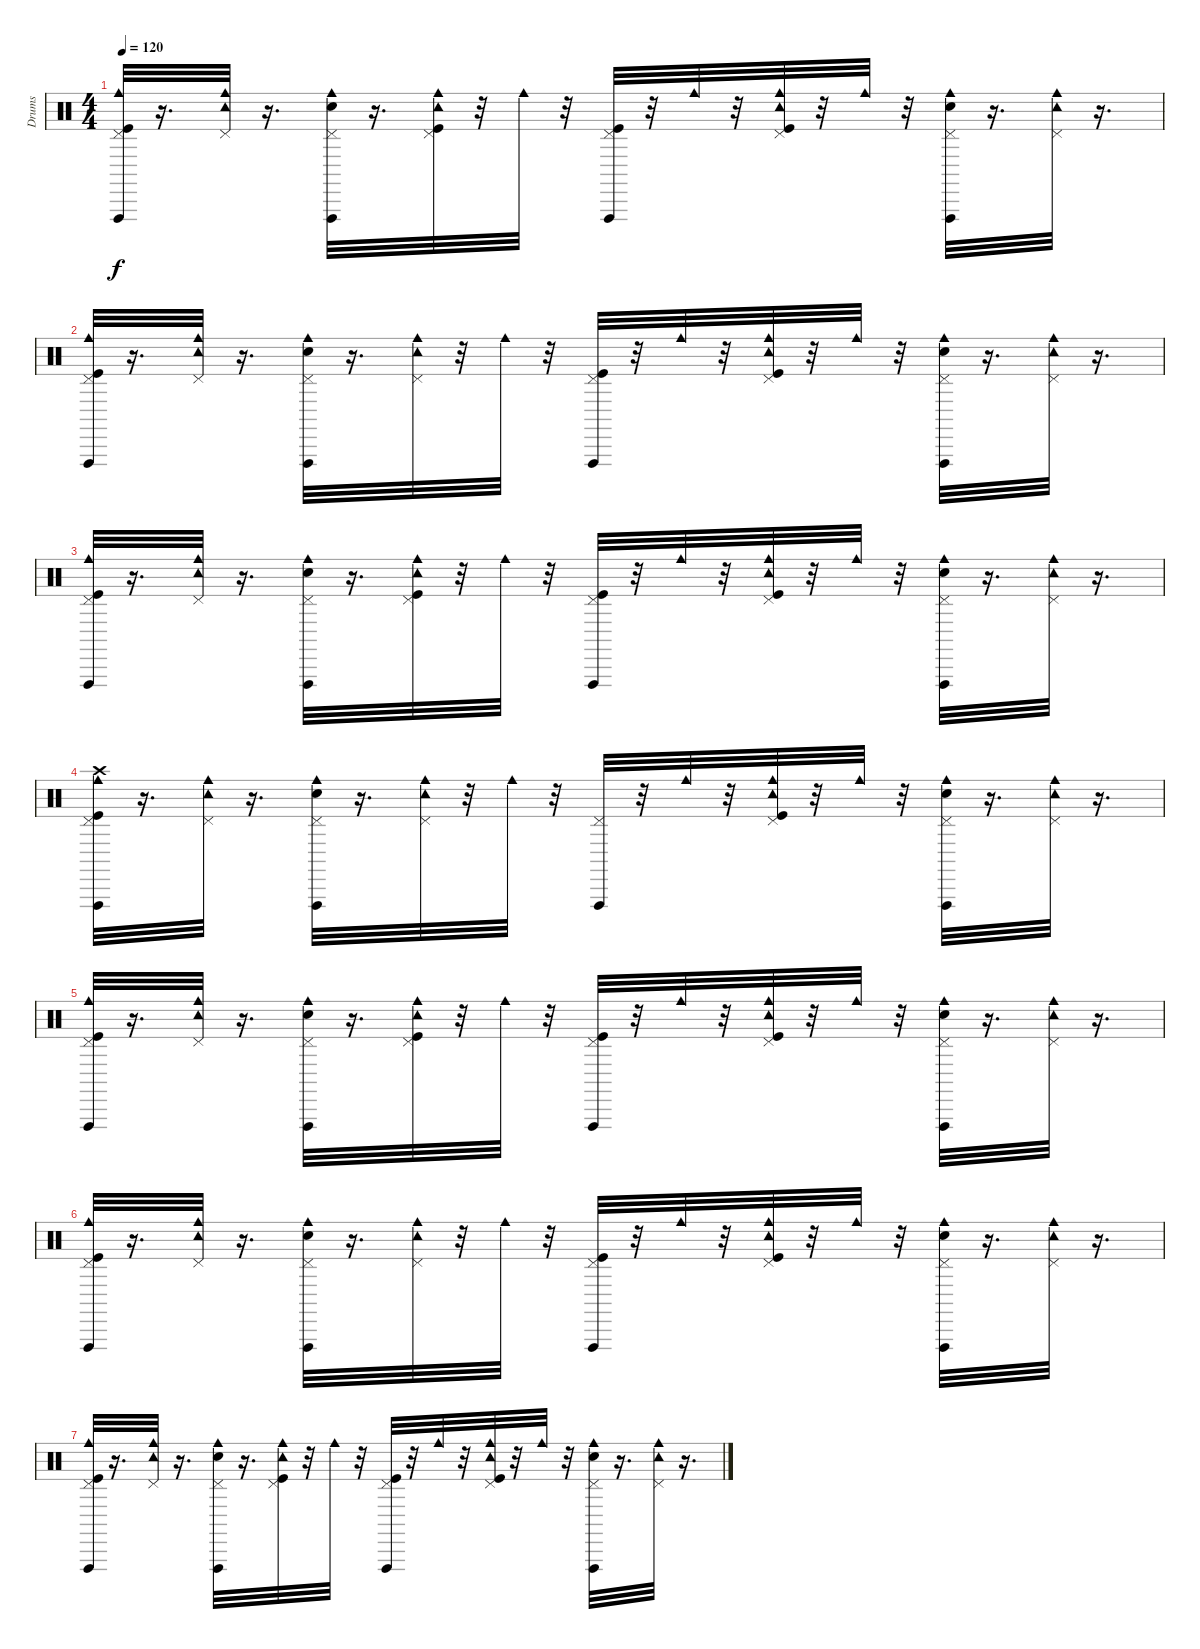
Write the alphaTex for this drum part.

\track ("Drums" "Drums") {instrument percussion}
\staff {score}
\articulation defaults
\ts (4 4)
\tempo 120
\clef neutral
\ks c
("Kick (hit)" "Cowbell medium (hit)" "Pedal Hi-Hat (hit)" "Vibraslap (hit)").32{dy f} r.16{d} ("Tambourine (hit)" "Pedal Hi-Hat (hit)" "Cowbell medium (hit)").32 r.16{d} ("Pedal Hi-Hat (hit)" "Snare (hit) 2" "Cowbell medium (hit)" "Vibraslap (hit)").32 r.16{d} ("Pedal Hi-Hat (hit)" "Tambourine (hit)" "Kick (hit)" "Cowbell medium (hit)").32 r.32 "Cowbell medium (hit)".32 r.32 ("Pedal Hi-Hat (hit)" "Kick (hit)" "Vibraslap (hit)").32 r.32 "Cowbell medium (hit)".32 r.32 ("Tambourine (hit)" "Pedal Hi-Hat (hit)" "Cowbell medium (hit)" "Kick (hit)").32 r.32 "Cowbell medium (hit)".32 r.32 ("Cowbell medium (hit)" "Pedal Hi-Hat (hit)" "Snare (hit) 2" "Vibraslap (hit)").32 r.16{d} ("Pedal Hi-Hat (hit)" "Tambourine (hit)" "Cowbell medium (hit)").32 r.16{d} |
("Cowbell medium (hit)" "Pedal Hi-Hat (hit)" "Kick (hit)" "Vibraslap (hit)").32 r.16{d} ("Pedal Hi-Hat (hit)" "Cowbell medium (hit)" "Tambourine (hit)").32 r.16{d} ("Pedal Hi-Hat (hit)" "Cowbell medium (hit)" "Snare (hit) 2" "Vibraslap (hit)").32 r.16{d} ("Cowbell medium (hit)" "Pedal Hi-Hat (hit)" "Tambourine (hit)").32 r.32 "Cowbell medium (hit)".32 r.32 ("Kick (hit)" "Pedal Hi-Hat (hit)" "Vibraslap (hit)").32 r.32 "Cowbell medium (hit)".32 r.32 ("Tambourine (hit)" "Pedal Hi-Hat (hit)" "Kick (hit)" "Cowbell medium (hit)").32 r.32 "Cowbell medium (hit)".32 r.32 ("Snare (hit) 2" "Pedal Hi-Hat (hit)" "Cowbell medium (hit)" "Vibraslap (hit)").32 r.16{d} ("Pedal Hi-Hat (hit)" "Tambourine (hit)" "Cowbell medium (hit)").32 r.16{d} |
("Vibraslap (hit)" "Cowbell medium (hit)" "Pedal Hi-Hat (hit)" "Kick (hit)").32 r.16{d} ("Tambourine (hit)" "Pedal Hi-Hat (hit)" "Cowbell medium (hit)").32 r.16{d} ("Pedal Hi-Hat (hit)" "Snare (hit) 2" "Cowbell medium (hit)" "Vibraslap (hit)").32 r.16{d} ("Tambourine (hit)" "Pedal Hi-Hat (hit)" "Kick (hit)" "Cowbell medium (hit)").32 r.32 "Cowbell medium (hit)".32 r.32 ("Pedal Hi-Hat (hit)" "Vibraslap (hit)" "Kick (hit)").32 r.32 "Cowbell medium (hit)".32 r.32 ("Tambourine (hit)" "Pedal Hi-Hat (hit)" "Cowbell medium (hit)" "Kick (hit)").32 r.32 "Cowbell medium (hit)".32 r.32 ("Vibraslap (hit)" "Pedal Hi-Hat (hit)" "Cowbell medium (hit)" "Snare (hit) 2").32 r.16{d} ("Tambourine (hit)" "Cowbell medium (hit)" "Pedal Hi-Hat (hit)").32 r.16{d} |
("Vibraslap (hit)" "Cowbell medium (hit)" "Pedal Hi-Hat (hit)" "Crash high (hit)" "Kick (hit)").32 r.16{d} ("Pedal Hi-Hat (hit)" "Tambourine (hit)" "Cowbell medium (hit)").32 r.16{d} ("Snare (hit) 2" "Cowbell medium (hit)" "Vibraslap (hit)" "Pedal Hi-Hat (hit)").32 r.16{d} ("Cowbell medium (hit)" "Pedal Hi-Hat (hit)" "Tambourine (hit)").32 r.32 "Cowbell medium (hit)".32 r.32 ("Vibraslap (hit)" "Pedal Hi-Hat (hit)").32 r.32 "Cowbell medium (hit)".32 r.32 ("Tambourine (hit)" "Cowbell medium (hit)" "Pedal Hi-Hat (hit)" "Kick (hit)").32 r.32 "Cowbell medium (hit)".32 r.32 ("Cowbell medium (hit)" "Vibraslap (hit)" "Snare (hit) 2" "Pedal Hi-Hat (hit)").32 r.16{d} ("Pedal Hi-Hat (hit)" "Cowbell medium (hit)" "Tambourine (hit)").32 r.16{d} |
("Kick (hit)" "Cowbell medium (hit)" "Pedal Hi-Hat (hit)" "Vibraslap (hit)").32 r.16{d} ("Tambourine (hit)" "Pedal Hi-Hat (hit)" "Cowbell medium (hit)").32 r.16{d} ("Pedal Hi-Hat (hit)" "Snare (hit) 2" "Cowbell medium (hit)" "Vibraslap (hit)").32 r.16{d} ("Pedal Hi-Hat (hit)" "Tambourine (hit)" "Kick (hit)" "Cowbell medium (hit)").32 r.32 "Cowbell medium (hit)".32 r.32 ("Pedal Hi-Hat (hit)" "Kick (hit)" "Vibraslap (hit)").32 r.32 "Cowbell medium (hit)".32 r.32 ("Tambourine (hit)" "Pedal Hi-Hat (hit)" "Cowbell medium (hit)" "Kick (hit)").32 r.32 "Cowbell medium (hit)".32 r.32 ("Cowbell medium (hit)" "Pedal Hi-Hat (hit)" "Snare (hit) 2" "Vibraslap (hit)").32 r.16{d} ("Pedal Hi-Hat (hit)" "Tambourine (hit)" "Cowbell medium (hit)").32 r.16{d} |
("Cowbell medium (hit)" "Pedal Hi-Hat (hit)" "Kick (hit)" "Vibraslap (hit)").32 r.16{d} ("Pedal Hi-Hat (hit)" "Cowbell medium (hit)" "Tambourine (hit)").32 r.16{d} ("Pedal Hi-Hat (hit)" "Cowbell medium (hit)" "Snare (hit) 2" "Vibraslap (hit)").32 r.16{d} ("Cowbell medium (hit)" "Pedal Hi-Hat (hit)" "Tambourine (hit)").32 r.32 "Cowbell medium (hit)".32 r.32 ("Kick (hit)" "Pedal Hi-Hat (hit)" "Vibraslap (hit)").32 r.32 "Cowbell medium (hit)".32 r.32 ("Tambourine (hit)" "Pedal Hi-Hat (hit)" "Kick (hit)" "Cowbell medium (hit)").32 r.32 "Cowbell medium (hit)".32 r.32 ("Snare (hit) 2" "Pedal Hi-Hat (hit)" "Cowbell medium (hit)" "Vibraslap (hit)").32 r.16{d} ("Pedal Hi-Hat (hit)" "Tambourine (hit)" "Cowbell medium (hit)").32 r.16{d} |
("Vibraslap (hit)" "Cowbell medium (hit)" "Pedal Hi-Hat (hit)" "Kick (hit)").32 r.16{d} ("Tambourine (hit)" "Pedal Hi-Hat (hit)" "Cowbell medium (hit)").32 r.16{d} ("Pedal Hi-Hat (hit)" "Snare (hit) 2" "Cowbell medium (hit)" "Vibraslap (hit)").32 r.16{d} ("Tambourine (hit)" "Pedal Hi-Hat (hit)" "Kick (hit)" "Cowbell medium (hit)").32 r.32 "Cowbell medium (hit)".32 r.32 ("Pedal Hi-Hat (hit)" "Vibraslap (hit)" "Kick (hit)").32 r.32 "Cowbell medium (hit)".32 r.32 ("Tambourine (hit)" "Pedal Hi-Hat (hit)" "Cowbell medium (hit)" "Kick (hit)").32 r.32 "Cowbell medium (hit)".32 r.32 ("Vibraslap (hit)" "Pedal Hi-Hat (hit)" "Cowbell medium (hit)" "Snare (hit) 2").32 r.16{d} ("Tambourine (hit)" "Cowbell medium (hit)" "Pedal Hi-Hat (hit)").32 r.16{d}
